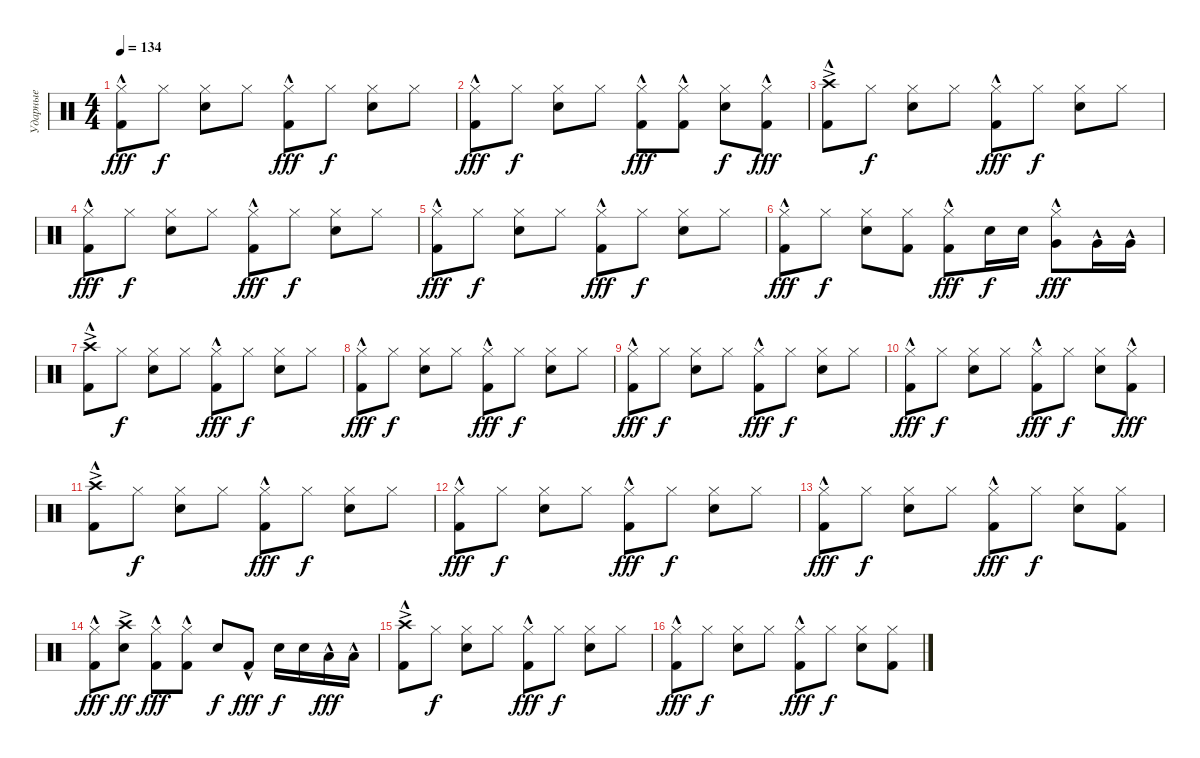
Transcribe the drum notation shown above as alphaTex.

\track ("Ударные" "Ударные") {instrument percussion}
\staff {score}
\articulation defaults
\ts (4 4)
\tempo 134
\clef neutral
\ks c
("Hi-Hat (closed)" "Kick (hit) 2"{hac}).8{dy fff} "Hi-Hat (closed)".8{dy f} ("Hi-Hat (closed)" "Snare (hit) 2").8 "Hi-Hat (closed)".8 ("Hi-Hat (closed)" "Kick (hit) 2"{hac}).8{dy fff} "Hi-Hat (closed)".8{dy f} ("Hi-Hat (closed)" "Snare (hit) 2").8 "Hi-Hat (closed)".8 |
("Hi-Hat (closed)" "Kick (hit) 2"{hac}).8{dy fff} "Hi-Hat (closed)".8{dy f} ("Hi-Hat (closed)" "Snare (hit) 2").8 "Hi-Hat (closed)".8 ("Hi-Hat (closed)" "Kick (hit) 2"{hac}).8{dy fff} ("Hi-Hat (closed)" "Kick (hit) 2"{hac}).8 ("Hi-Hat (closed)" "Snare (hit) 2").8{dy f} ("Hi-Hat (closed)" "Kick (hit) 2"{hac}).8{dy fff} |
("Crash high (hit)"{ac} "Kick (hit) 2"{hac}).8 "Hi-Hat (closed)".8{dy f} ("Hi-Hat (closed)" "Snare (hit) 2").8 "Hi-Hat (closed)".8 ("Hi-Hat (closed)" "Kick (hit) 2"{hac}).8{dy fff} "Hi-Hat (closed)".8{dy f} ("Hi-Hat (closed)" "Snare (hit) 2").8 "Hi-Hat (closed)".8 |
("Hi-Hat (closed)" "Kick (hit) 2"{hac}).8{dy fff} "Hi-Hat (closed)".8{dy f} ("Hi-Hat (closed)" "Snare (hit) 2").8 "Hi-Hat (closed)".8 ("Hi-Hat (closed)" "Kick (hit) 2"{hac}).8{dy fff} "Hi-Hat (closed)".8{dy f} ("Hi-Hat (closed)" "Snare (hit) 2").8 "Hi-Hat (closed)".8 |
("Hi-Hat (closed)" "Kick (hit) 2"{hac}).8{dy fff} "Hi-Hat (closed)".8{dy f} ("Hi-Hat (closed)" "Snare (hit) 2").8 "Hi-Hat (closed)".8 ("Hi-Hat (closed)" "Kick (hit) 2"{hac}).8{dy fff} "Hi-Hat (closed)".8{dy f} ("Hi-Hat (closed)" "Snare (hit) 2").8 "Hi-Hat (closed)".8 |
("Hi-Hat (closed)" "Kick (hit) 2"{hac}).8{dy fff} "Hi-Hat (closed)".8{dy f} ("Hi-Hat (closed)" "Snare (hit) 2").8 ("Hi-Hat (closed)" "Kick (hit) 2").8 ("Hi-Hat (closed)" "Kick (hit) 2"{hac}).8{dy fff} "Snare (hit) 2".16{dy f} "Snare (hit) 2".16 ("Hi-Hat (closed)" "Very Low Tom (hit)"{hac}).8{dy fff} "Very Low Tom (hit)"{hac}.16 "Very Low Tom (hit)"{hac}.16 |
("Crash high (hit)"{ac} "Kick (hit) 2"{hac}).8 "Hi-Hat (closed)".8{dy f} ("Hi-Hat (closed)" "Snare (hit) 2").8 "Hi-Hat (closed)".8 ("Hi-Hat (closed)" "Kick (hit) 2"{hac}).8{dy fff} "Hi-Hat (closed)".8{dy f} ("Hi-Hat (closed)" "Snare (hit) 2").8 "Hi-Hat (closed)".8 |
("Hi-Hat (closed)" "Kick (hit) 2"{hac}).8{dy fff} "Hi-Hat (closed)".8{dy f} ("Hi-Hat (closed)" "Snare (hit) 2").8 "Hi-Hat (closed)".8 ("Hi-Hat (closed)" "Kick (hit) 2"{hac}).8{dy fff} "Hi-Hat (closed)".8{dy f} ("Hi-Hat (closed)" "Snare (hit) 2").8 "Hi-Hat (closed)".8 |
("Hi-Hat (closed)" "Kick (hit) 2"{hac}).8{dy fff} "Hi-Hat (closed)".8{dy f} ("Hi-Hat (closed)" "Snare (hit) 2").8 "Hi-Hat (closed)".8 ("Hi-Hat (closed)" "Kick (hit) 2"{hac}).8{dy fff} "Hi-Hat (closed)".8{dy f} ("Hi-Hat (closed)" "Snare (hit) 2").8 "Hi-Hat (closed)".8 |
("Hi-Hat (closed)" "Kick (hit) 2"{hac}).8{dy fff} "Hi-Hat (closed)".8{dy f} ("Hi-Hat (closed)" "Snare (hit) 2").8 "Hi-Hat (closed)".8 ("Hi-Hat (closed)" "Kick (hit) 2"{hac}).8{dy fff} "Hi-Hat (closed)".8{dy f} ("Hi-Hat (closed)" "Snare (hit) 2").8 ("Hi-Hat (closed)" "Kick (hit) 2"{hac}).8{dy fff} |
("Crash high (hit)"{ac} "Kick (hit) 2"{hac}).8 "Hi-Hat (closed)".8{dy f} ("Hi-Hat (closed)" "Snare (hit) 2").8 "Hi-Hat (closed)".8 ("Hi-Hat (closed)" "Kick (hit) 2"{hac}).8{dy fff} "Hi-Hat (closed)".8{dy f} ("Hi-Hat (closed)" "Snare (hit) 2").8 "Hi-Hat (closed)".8 |
("Hi-Hat (closed)" "Kick (hit) 2"{hac}).8{dy fff} "Hi-Hat (closed)".8{dy f} ("Hi-Hat (closed)" "Snare (hit) 2").8 "Hi-Hat (closed)".8 ("Hi-Hat (closed)" "Kick (hit) 2"{hac}).8{dy fff} "Hi-Hat (closed)".8{dy f} ("Hi-Hat (closed)" "Snare (hit) 2").8 "Hi-Hat (closed)".8 |
("Hi-Hat (closed)" "Kick (hit) 2"{hac}).8{dy fff} "Hi-Hat (closed)".8{dy f} ("Hi-Hat (closed)" "Snare (hit) 2").8 "Hi-Hat (closed)".8 ("Hi-Hat (closed)" "Kick (hit) 2"{hac}).8{dy fff} "Hi-Hat (closed)".8{dy f} ("Hi-Hat (closed)" "Snare (hit) 2").8 ("Hi-Hat (closed)" "Kick (hit) 2").8 |
("Hi-Hat (closed)" "Kick (hit) 2"{hac}).8{dy fff} ("Crash high (hit)"{ac} "Snare (hit) 2").8{dy ff} ("Hi-Hat (closed)" "Kick (hit) 2"{hac}).8{dy fff} ("Hi-Hat (closed)" "Kick (hit) 2"{hac}).8 "Snare (hit) 2".8{dy f} "Kick (hit) 2"{hac}.8{dy fff} "Snare (hit) 2".16{dy f} "Snare (hit) 2".16 "Low Tom (hit)"{hac}.16{dy fff} "Low Tom (hit)"{hac}.16 |
("Crash high (hit)"{ac} "Kick (hit) 2"{hac}).8 "Hi-Hat (closed)".8{dy f} ("Hi-Hat (closed)" "Snare (hit) 2").8 "Hi-Hat (closed)".8 ("Hi-Hat (closed)" "Kick (hit) 2"{hac}).8{dy fff} "Hi-Hat (closed)".8{dy f} ("Hi-Hat (closed)" "Snare (hit) 2").8 "Hi-Hat (closed)".8 |
("Hi-Hat (closed)" "Kick (hit) 2"{hac}).8{dy fff} "Hi-Hat (closed)".8{dy f} ("Hi-Hat (closed)" "Snare (hit) 2").8 "Hi-Hat (closed)".8 ("Hi-Hat (closed)" "Kick (hit) 2"{hac}).8{dy fff} "Hi-Hat (closed)".8{dy f} ("Hi-Hat (closed)" "Snare (hit) 2").8 ("Hi-Hat (closed)" "Kick (hit) 2").8
